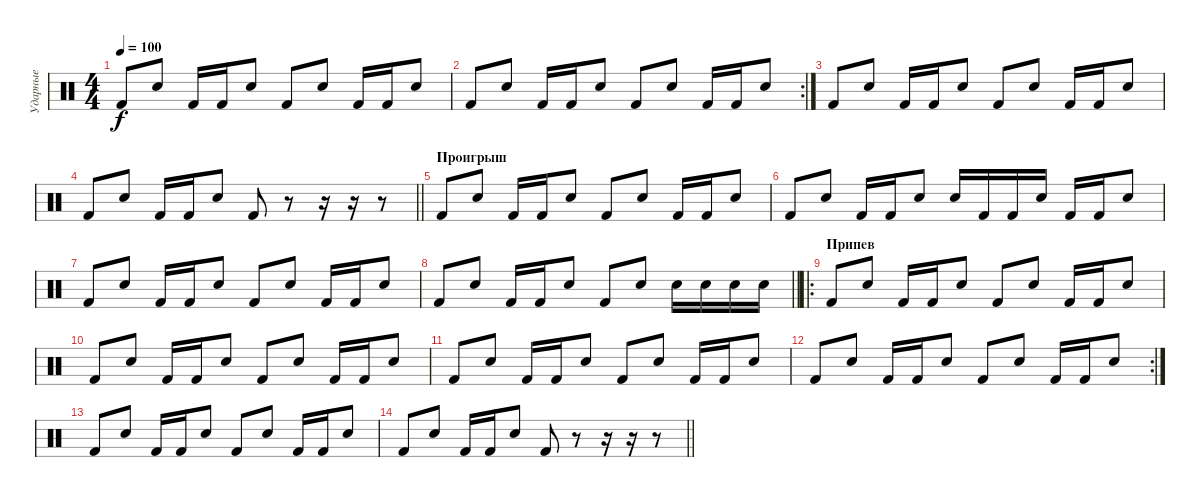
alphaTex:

\track ("Ударные" "Ударные") {instrument percussion}
\staff {score}
\articulation defaults
\ts (4 4)
\tempo 100
\clef neutral
\ks c "Kick (hit) 2".8{dy f} "Snare (hit) 2".8 "Kick (hit) 2".16 "Kick (hit) 2".16 "Snare (hit) 2".8 "Kick (hit) 2".8 "Snare (hit) 2".8 "Kick (hit) 2".16 "Kick (hit) 2".16 "Snare (hit) 2".8
|
\rc 2 "Kick (hit) 2".8 "Snare (hit) 2".8 "Kick (hit) 2".16 "Kick (hit) 2".16 "Snare (hit) 2".8 "Kick (hit) 2".8 "Snare (hit) 2".8 "Kick (hit) 2".16 "Kick (hit) 2".16 "Snare (hit) 2".8
|
"Kick (hit) 2".8 "Snare (hit) 2".8 "Kick (hit) 2".16 "Kick (hit) 2".16 "Snare (hit) 2".8 "Kick (hit) 2".8 "Snare (hit) 2".8 "Kick (hit) 2".16 "Kick (hit) 2".16 "Snare (hit) 2".8 |
\barLineRight lightlight "Kick (hit) 2".8 "Snare (hit) 2".8 "Kick (hit) 2".16 "Kick (hit) 2".16 "Snare (hit) 2".8 "Kick (hit) 2".8
r.8 r.16 r.16 r.8 |
\section ("" "Проигрыш")
"Kick (hit) 2".8 "Snare (hit) 2".8 "Kick (hit) 2".16 "Kick (hit) 2".16 "Snare (hit) 2".8 "Kick (hit) 2".8 "Snare (hit) 2".8 "Kick (hit) 2".16 "Kick (hit) 2".16 "Snare (hit) 2".8 |
"Kick (hit) 2".8 "Snare (hit) 2".8 "Kick (hit) 2".16 "Kick (hit) 2".16 "Snare (hit) 2".8 "Snare (hit) 2".16 "Kick (hit) 2".16 "Kick (hit) 2".16 "Snare (hit) 2".16 "Kick (hit) 2".16 "Kick (hit) 2".16 "Snare (hit) 2".8 |
"Kick (hit) 2".8 "Snare (hit) 2".8 "Kick (hit) 2".16 "Kick (hit) 2".16 "Snare (hit) 2".8 "Kick (hit) 2".8 "Snare (hit) 2".8 "Kick (hit) 2".16 "Kick (hit) 2".16 "Snare (hit) 2".8 |
\barLineRight lightlight "Kick (hit) 2".8 "Snare (hit) 2".8 "Kick (hit) 2".16 "Kick (hit) 2".16 "Snare (hit) 2".8 "Kick (hit) 2".8 "Snare (hit) 2".8 "Snare (hit) 2".16 "Snare (hit) 2".16 "Snare (hit) 2".16 "Snare (hit) 2".16
|
\ro
\section ("" "Припев")
"Kick (hit) 2".8 "Snare (hit) 2".8 "Kick (hit) 2".16 "Kick (hit) 2".16 "Snare (hit) 2".8 "Kick (hit) 2".8 "Snare (hit) 2".8 "Kick (hit) 2".16 "Kick (hit) 2".16 "Snare (hit) 2".8 |
"Kick (hit) 2".8 "Snare (hit) 2".8 "Kick (hit) 2".16 "Kick (hit) 2".16 "Snare (hit) 2".8 "Kick (hit) 2".8 "Snare (hit) 2".8 "Kick (hit) 2".16 "Kick (hit) 2".16 "Snare (hit) 2".8 |
"Kick (hit) 2".8 "Snare (hit) 2".8 "Kick (hit) 2".16 "Kick (hit) 2".16 "Snare (hit) 2".8 "Kick (hit) 2".8 "Snare (hit) 2".8 "Kick (hit) 2".16 "Kick (hit) 2".16 "Snare (hit) 2".8 |
\rc 2 "Kick (hit) 2".8 "Snare (hit) 2".8 "Kick (hit) 2".16 "Kick (hit) 2".16 "Snare (hit) 2".8 "Kick (hit) 2".8 "Snare (hit) 2".8 "Kick (hit) 2".16 "Kick (hit) 2".16 "Snare (hit) 2".8
|
"Kick (hit) 2".8 "Snare (hit) 2".8 "Kick (hit) 2".16 "Kick (hit) 2".16 "Snare (hit) 2".8 "Kick (hit) 2".8 "Snare (hit) 2".8 "Kick (hit) 2".16 "Kick (hit) 2".16 "Snare (hit) 2".8 |
\barLineRight lightlight "Kick (hit) 2".8 "Snare (hit) 2".8 "Kick (hit) 2".16 "Kick (hit) 2".16 "Snare (hit) 2".8 "Kick (hit) 2".8
r.8 r.16 r.16 r.8
